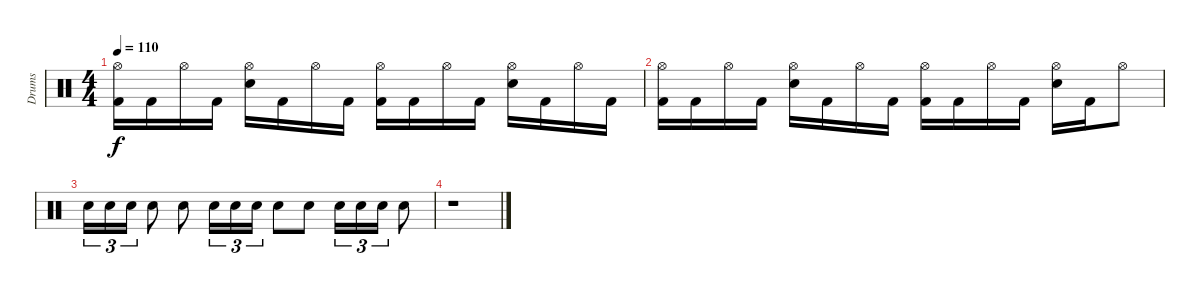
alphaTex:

\track ("Drums" "Drums") {instrument percussion}
\staff {score}
\articulation defaults
\ts (4 4)
\tempo 110
\clef neutral
\ks c
("Hi-Hat (open)" "Kick (hit) 2").16{dy f} "Kick (hit) 2".16 "Hi-Hat (open)".16 "Kick (hit) 2".16 ("Hi-Hat (open)" "Electric Snare (hit)").16 "Kick (hit) 2".16 "Hi-Hat (open)".16 "Kick (hit) 2".16 ("Hi-Hat (open)" "Kick (hit) 2").16 "Kick (hit) 2".16 "Hi-Hat (open)".16 "Kick (hit) 2".16 ("Hi-Hat (open)" "Electric Snare (hit)").16 "Kick (hit) 2".16 "Hi-Hat (open)".16 "Kick (hit) 2".16 |
("Hi-Hat (open)" "Kick (hit) 2").16 "Kick (hit) 2".16 "Hi-Hat (open)".16 "Kick (hit) 2".16 ("Hi-Hat (open)" "Electric Snare (hit)").16 "Kick (hit) 2".16 "Hi-Hat (open)".16 "Kick (hit) 2".16 ("Hi-Hat (open)" "Kick (hit) 2").16 "Kick (hit) 2".16 "Hi-Hat (open)".16 "Kick (hit) 2".16 ("Hi-Hat (open)" "Electric Snare (hit)").16 "Kick (hit) 2".16 "Hi-Hat (open)".8 |
"Electric Snare (hit)".16{tu (3 2)} "Electric Snare (hit)".16{tu (3 2)} "Electric Snare (hit)".16{tu (3 2)} "Electric Snare (hit)".8 "Electric Snare (hit)".8 "Electric Snare (hit)".16{tu (3 2)} "Electric Snare (hit)".16{tu (3 2)} "Electric Snare (hit)".16{tu (3 2)} "Electric Snare (hit)".8 "Electric Snare (hit)".8 "Electric Snare (hit)".16{tu (3 2)} "Electric Snare (hit)".16{tu (3 2)} "Electric Snare (hit)".16{tu (3 2)} "Electric Snare (hit)".8 |
r.1
